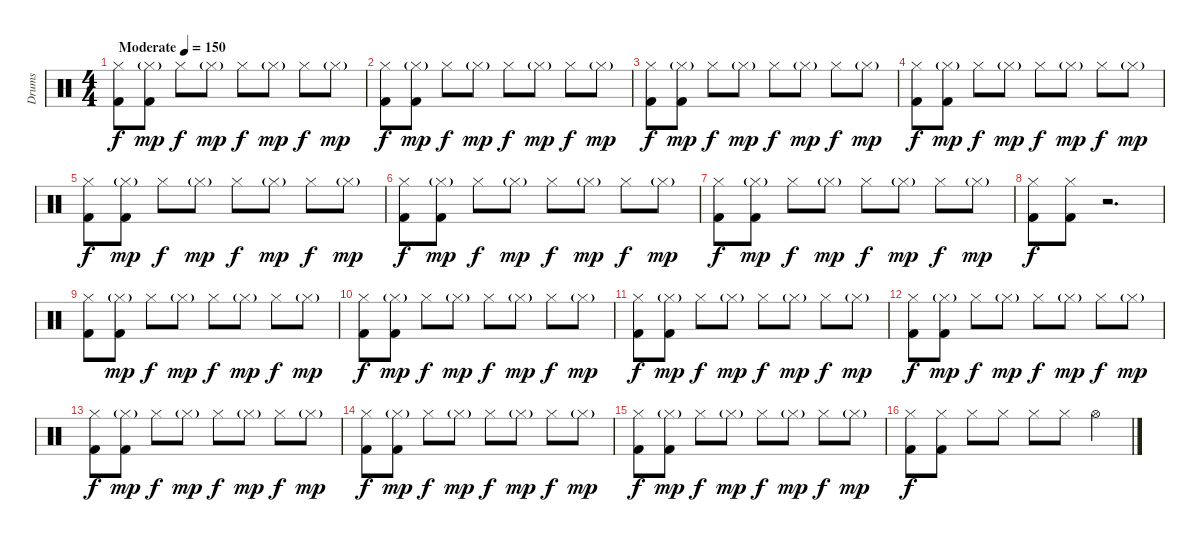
\track ("Drums" "Drums") {instrument percussion}
\staff {score}
\articulation defaults
\ts (4 4)
\tempo (150 "Moderate")
\clef neutral
\ks c
("Hi-Hat (closed)" "Kick (hit) 2").8{dy f} ("Hi-Hat (closed)"{g} "Kick (hit) 2").8{dy mp} "Hi-Hat (closed)".8{dy f} "Hi-Hat (closed)"{g}.8{dy mp} "Hi-Hat (closed)".8{dy f} "Hi-Hat (closed)"{g}.8{dy mp} "Hi-Hat (closed)".8{dy f} "Hi-Hat (closed)"{g}.8{dy mp} |
("Hi-Hat (closed)" "Kick (hit) 2").8{dy f} ("Hi-Hat (closed)"{g} "Kick (hit) 2").8{dy mp} "Hi-Hat (closed)".8{dy f} "Hi-Hat (closed)"{g}.8{dy mp} "Hi-Hat (closed)".8{dy f} "Hi-Hat (closed)"{g}.8{dy mp} "Hi-Hat (closed)".8{dy f} "Hi-Hat (closed)"{g}.8{dy mp} |
("Hi-Hat (closed)" "Kick (hit) 2").8{dy f} ("Hi-Hat (closed)"{g} "Kick (hit) 2").8{dy mp} "Hi-Hat (closed)".8{dy f} "Hi-Hat (closed)"{g}.8{dy mp} "Hi-Hat (closed)".8{dy f} "Hi-Hat (closed)"{g}.8{dy mp} "Hi-Hat (closed)".8{dy f} "Hi-Hat (closed)"{g}.8{dy mp} |
("Hi-Hat (closed)" "Kick (hit) 2").8{dy f} ("Hi-Hat (closed)"{g} "Kick (hit) 2").8{dy mp} "Hi-Hat (closed)".8{dy f} "Hi-Hat (closed)"{g}.8{dy mp} "Hi-Hat (closed)".8{dy f} "Hi-Hat (closed)"{g}.8{dy mp} "Hi-Hat (closed)".8{dy f} "Hi-Hat (closed)"{g}.8{dy mp} |
("Hi-Hat (closed)" "Kick (hit) 2").8{dy f} ("Hi-Hat (closed)"{g} "Kick (hit) 2").8{dy mp} "Hi-Hat (closed)".8{dy f} "Hi-Hat (closed)"{g}.8{dy mp} "Hi-Hat (closed)".8{dy f} "Hi-Hat (closed)"{g}.8{dy mp} "Hi-Hat (closed)".8{dy f} "Hi-Hat (closed)"{g}.8{dy mp} |
("Hi-Hat (closed)" "Kick (hit) 2").8{dy f} ("Hi-Hat (closed)"{g} "Kick (hit) 2").8{dy mp} "Hi-Hat (closed)".8{dy f} "Hi-Hat (closed)"{g}.8{dy mp} "Hi-Hat (closed)".8{dy f} "Hi-Hat (closed)"{g}.8{dy mp} "Hi-Hat (closed)".8{dy f} "Hi-Hat (closed)"{g}.8{dy mp} |
("Hi-Hat (closed)" "Kick (hit) 2").8{dy f} ("Hi-Hat (closed)"{g} "Kick (hit) 2").8{dy mp} "Hi-Hat (closed)".8{dy f} "Hi-Hat (closed)"{g}.8{dy mp} "Hi-Hat (closed)".8{dy f} "Hi-Hat (closed)"{g}.8{dy mp} "Hi-Hat (closed)".8{dy f} "Hi-Hat (closed)"{g}.8{dy mp} |
("Hi-Hat (closed)" "Kick (hit) 2").8{dy f} ("Hi-Hat (closed)" "Kick (hit) 2").8 r.2{d} |
("Hi-Hat (closed)" "Kick (hit) 2").8 ("Hi-Hat (closed)"{g} "Kick (hit) 2").8{dy mp} "Hi-Hat (closed)".8{dy f} "Hi-Hat (closed)"{g}.8{dy mp} "Hi-Hat (closed)".8{dy f} "Hi-Hat (closed)"{g}.8{dy mp} "Hi-Hat (closed)".8{dy f} "Hi-Hat (closed)"{g}.8{dy mp} |
("Hi-Hat (closed)" "Kick (hit) 2").8{dy f} ("Hi-Hat (closed)"{g} "Kick (hit) 2").8{dy mp} "Hi-Hat (closed)".8{dy f} "Hi-Hat (closed)"{g}.8{dy mp} "Hi-Hat (closed)".8{dy f} "Hi-Hat (closed)"{g}.8{dy mp} "Hi-Hat (closed)".8{dy f} "Hi-Hat (closed)"{g}.8{dy mp} |
("Hi-Hat (closed)" "Kick (hit) 2").8{dy f} ("Hi-Hat (closed)"{g} "Kick (hit) 2").8{dy mp} "Hi-Hat (closed)".8{dy f} "Hi-Hat (closed)"{g}.8{dy mp} "Hi-Hat (closed)".8{dy f} "Hi-Hat (closed)"{g}.8{dy mp} "Hi-Hat (closed)".8{dy f} "Hi-Hat (closed)"{g}.8{dy mp} |
("Hi-Hat (closed)" "Kick (hit) 2").8{dy f} ("Hi-Hat (closed)"{g} "Kick (hit) 2").8{dy mp} "Hi-Hat (closed)".8{dy f} "Hi-Hat (closed)"{g}.8{dy mp} "Hi-Hat (closed)".8{dy f} "Hi-Hat (closed)"{g}.8{dy mp} "Hi-Hat (closed)".8{dy f} "Hi-Hat (closed)"{g}.8{dy mp} |
("Hi-Hat (closed)" "Kick (hit) 2").8{dy f} ("Hi-Hat (closed)"{g} "Kick (hit) 2").8{dy mp} "Hi-Hat (closed)".8{dy f} "Hi-Hat (closed)"{g}.8{dy mp} "Hi-Hat (closed)".8{dy f} "Hi-Hat (closed)"{g}.8{dy mp} "Hi-Hat (closed)".8{dy f} "Hi-Hat (closed)"{g}.8{dy mp} |
("Hi-Hat (closed)" "Kick (hit) 2").8{dy f} ("Hi-Hat (closed)"{g} "Kick (hit) 2").8{dy mp} "Hi-Hat (closed)".8{dy f} "Hi-Hat (closed)"{g}.8{dy mp} "Hi-Hat (closed)".8{dy f} "Hi-Hat (closed)"{g}.8{dy mp} "Hi-Hat (closed)".8{dy f} "Hi-Hat (closed)"{g}.8{dy mp} |
("Hi-Hat (closed)" "Kick (hit) 2").8{dy f} ("Hi-Hat (closed)"{g} "Kick (hit) 2").8{dy mp} "Hi-Hat (closed)".8{dy f} "Hi-Hat (closed)"{g}.8{dy mp} "Hi-Hat (closed)".8{dy f} "Hi-Hat (closed)"{g}.8{dy mp} "Hi-Hat (closed)".8{dy f} "Hi-Hat (closed)"{g}.8{dy mp} |
("Hi-Hat (closed)" "Kick (hit) 2").8{dy f} ("Hi-Hat (closed)" "Kick (hit) 2").8 "Hi-Hat (closed)".8 "Hi-Hat (closed)".8 "Hi-Hat (closed)".8 "Hi-Hat (closed)".8 "Hi-Hat (open)".4
